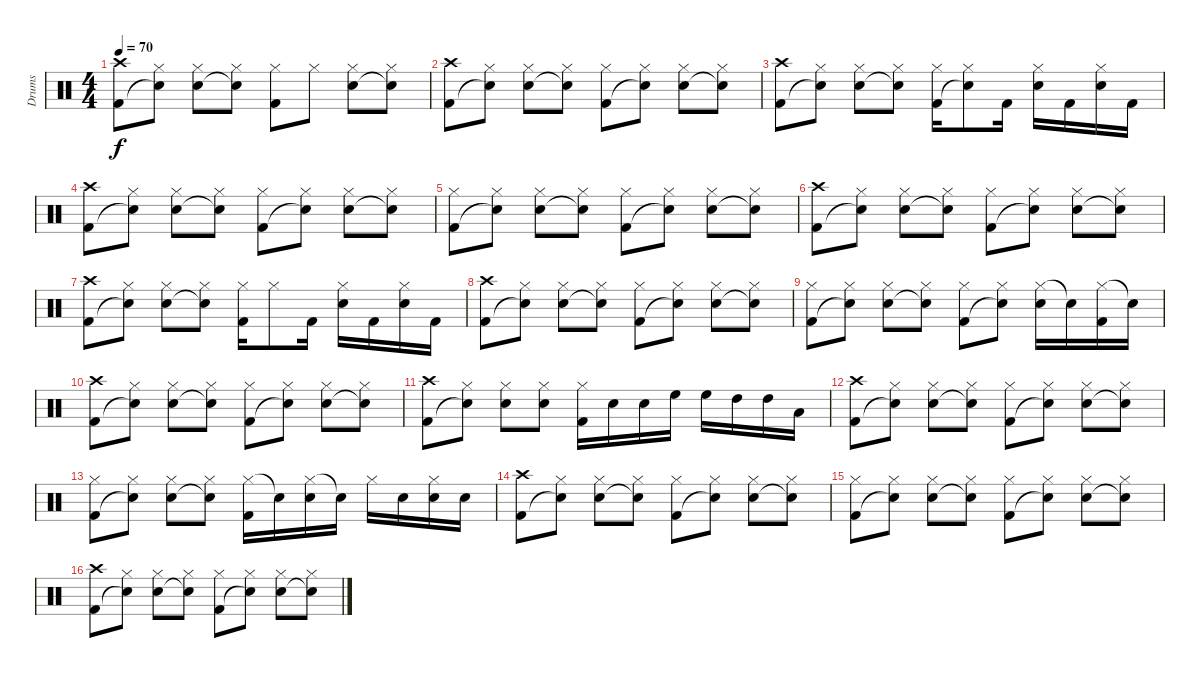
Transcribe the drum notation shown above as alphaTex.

\track ("Drums" "Drums") {instrument percussion}
\staff {score}
\articulation defaults
\ts (4 4)
\tempo 70
\clef neutral
\ks c
("Crash high (hit)" "Kick (hit) 2").8{dy f} ("Hi-Hat (closed)" "Snare (hit)"{t}).8 ("Hi-Hat (closed)" "Electric Snare (hit)").8 ("Hi-Hat (closed)" "Snare (hit)"{t}).8 ("Hi-Hat (closed)" "Kick (hit) 2").8 "Hi-Hat (closed)".8 ("Hi-Hat (closed)" "Electric Snare (hit)").8 ("Hi-Hat (closed)" "Snare (hit)"{t}).8 |
("Crash high (hit)" "Kick (hit) 2").8 ("Hi-Hat (closed)" "Snare (hit)"{t}).8 ("Hi-Hat (closed)" "Electric Snare (hit)").8 ("Hi-Hat (closed)" "Snare (hit)"{t}).8 ("Hi-Hat (closed)" "Kick (hit) 2").8 ("Hi-Hat (closed)" "Snare (hit)"{t}).8 ("Hi-Hat (closed)" "Electric Snare (hit)").8 ("Hi-Hat (closed)" "Snare (hit)"{t}).8 |
("Crash high (hit)" "Kick (hit) 2").8 ("Hi-Hat (closed)" "Snare (hit)"{t}).8 ("Hi-Hat (closed)" "Electric Snare (hit)").8 ("Hi-Hat (closed)" "Snare (hit)"{t}).8 ("Hi-Hat (closed)" "Kick (hit) 2").16 ("Hi-Hat (closed)" "Snare (hit)"{t}).8 "Kick (hit) 2".16 ("Hi-Hat (closed)" "Electric Snare (hit)").16 "Kick (hit) 2".16 ("Hi-Hat (closed)" "Electric Snare (hit)").16 "Kick (hit) 2".16 |
("Crash high (hit)" "Kick (hit) 2").8 ("Hi-Hat (closed)" "Snare (hit)"{t}).8 ("Hi-Hat (closed)" "Electric Snare (hit)").8 ("Hi-Hat (closed)" "Snare (hit)"{t}).8 ("Hi-Hat (closed)" "Kick (hit) 2").8 ("Hi-Hat (closed)" "Snare (hit)"{t}).8 ("Hi-Hat (closed)" "Electric Snare (hit)").8 ("Hi-Hat (closed)" "Snare (hit)"{t}).8 |
("Hi-Hat (closed)" "Kick (hit) 2").8 ("Hi-Hat (closed)" "Snare (hit)"{t}).8 ("Hi-Hat (closed)" "Electric Snare (hit)").8 ("Hi-Hat (closed)" "Snare (hit)"{t}).8 ("Hi-Hat (closed)" "Kick (hit) 2").8 ("Hi-Hat (closed)" "Snare (hit)"{t}).8 ("Hi-Hat (closed)" "Electric Snare (hit)").8 ("Hi-Hat (closed)" "Snare (hit)"{t}).8 |
("Crash high (hit)" "Kick (hit) 2").8 ("Hi-Hat (closed)" "Snare (hit)"{t}).8 ("Hi-Hat (closed)" "Electric Snare (hit)").8 ("Hi-Hat (closed)" "Snare (hit)"{t}).8 ("Hi-Hat (closed)" "Kick (hit) 2").8 ("Hi-Hat (closed)" "Snare (hit)"{t}).8 ("Hi-Hat (closed)" "Electric Snare (hit)").8 ("Hi-Hat (closed)" "Snare (hit)"{t}).8 |
("Crash high (hit)" "Kick (hit) 2").8 ("Hi-Hat (closed)" "Snare (hit)"{t}).8 ("Hi-Hat (closed)" "Electric Snare (hit)").8 ("Hi-Hat (closed)" "Snare (hit)"{t}).8 ("Hi-Hat (closed)" "Kick (hit) 2").16 "Hi-Hat (closed)".8 "Kick (hit) 2".16 ("Hi-Hat (closed)" "Electric Snare (hit)").16 "Kick (hit) 2".16 ("Hi-Hat (closed)" "Electric Snare (hit)").16 "Kick (hit) 2".16 |
("Crash high (hit)" "Kick (hit) 2").8 ("Hi-Hat (closed)" "Snare (hit)"{t}).8 ("Hi-Hat (closed)" "Electric Snare (hit)").8 ("Hi-Hat (closed)" "Snare (hit)"{t}).8 ("Hi-Hat (closed)" "Kick (hit) 2").8 ("Hi-Hat (closed)" "Snare (hit)"{t}).8 ("Hi-Hat (closed)" "Electric Snare (hit)").8 ("Hi-Hat (closed)" "Snare (hit)"{t}).8 |
("Hi-Hat (closed)" "Kick (hit) 2").8 ("Hi-Hat (closed)" "Snare (hit)"{t}).8 ("Hi-Hat (closed)" "Electric Snare (hit)").8 ("Hi-Hat (closed)" "Snare (hit)"{t}).8 ("Hi-Hat (closed)" "Kick (hit) 2").8 ("Hi-Hat (closed)" "Snare (hit)"{t}).8 ("Hi-Hat (closed)" "Electric Snare (hit)").16 "Snare (hit)"{t}.16 ("Hi-Hat (closed)" "Kick (hit) 2").16 "Snare (hit)"{t}.16 |
("Crash high (hit)" "Kick (hit) 2").8 ("Hi-Hat (closed)" "Snare (hit)"{t}).8 ("Hi-Hat (closed)" "Electric Snare (hit)").8 ("Hi-Hat (closed)" "Snare (hit)"{t}).8 ("Hi-Hat (closed)" "Kick (hit) 2").8 ("Hi-Hat (closed)" "Snare (hit)"{t}).8 ("Hi-Hat (closed)" "Electric Snare (hit)").8 ("Hi-Hat (closed)" "Snare (hit)"{t}).8 |
("Crash high (hit)" "Kick (hit) 2").8 ("Hi-Hat (closed)" "Snare (hit)"{t}).8 ("Hi-Hat (closed)" "Electric Snare (hit)").8 ("Hi-Hat (closed)" "Electric Snare (hit)").8 ("Hi-Hat (closed)" "Kick (hit) 2").16 "Electric Snare (hit)".16 "Electric Snare (hit)".16 "High Floor Tom (hit)".16 "High Floor Tom (hit)".16 "High Tom (hit)".16 "High Tom (hit)".16 "Low Floor Tom (hit)".16 |
("Crash high (hit)" "Kick (hit) 2").8 ("Hi-Hat (closed)" "Snare (hit)"{t}).8 ("Hi-Hat (closed)" "Electric Snare (hit)").8 ("Hi-Hat (closed)" "Snare (hit)"{t}).8 ("Hi-Hat (closed)" "Kick (hit) 2").8 ("Hi-Hat (closed)" "Snare (hit)"{t}).8 ("Hi-Hat (closed)" "Electric Snare (hit)").8 ("Hi-Hat (closed)" "Snare (hit)"{t}).8 |
("Hi-Hat (closed)" "Kick (hit) 2").8 ("Hi-Hat (closed)" "Snare (hit)"{t}).8 ("Hi-Hat (closed)" "Electric Snare (hit)").8 ("Hi-Hat (closed)" "Snare (hit)"{t}).8 ("Hi-Hat (closed)" "Kick (hit) 2").16 "Snare (hit)"{t}.16 ("Hi-Hat (closed)" "Electric Snare (hit)").16 "Snare (hit)"{t}.16 "Hi-Hat (closed)".16 "Electric Snare (hit)".16 ("Hi-Hat (closed)" "Electric Snare (hit)").16 "Snare (hit)".16 |
("Crash high (hit)" "Kick (hit) 2").8 ("Hi-Hat (closed)" "Snare (hit)"{t}).8 ("Hi-Hat (closed)" "Electric Snare (hit)").8 ("Hi-Hat (closed)" "Snare (hit)"{t}).8 ("Hi-Hat (closed)" "Kick (hit) 2").8 ("Hi-Hat (closed)" "Snare (hit)"{t}).8 ("Hi-Hat (closed)" "Electric Snare (hit)").8 ("Hi-Hat (closed)" "Snare (hit)"{t}).8 |
("Hi-Hat (closed)" "Kick (hit) 2").8 ("Hi-Hat (closed)" "Snare (hit)"{t}).8 ("Hi-Hat (closed)" "Electric Snare (hit)").8 ("Hi-Hat (closed)" "Snare (hit)"{t}).8 ("Hi-Hat (closed)" "Kick (hit) 2").8 ("Hi-Hat (closed)" "Snare (hit)"{t}).8 ("Hi-Hat (closed)" "Electric Snare (hit)").8 ("Hi-Hat (closed)" "Snare (hit)"{t}).8 |
("Crash high (hit)" "Kick (hit) 2").8 ("Hi-Hat (closed)" "Snare (hit)"{t}).8 ("Hi-Hat (closed)" "Electric Snare (hit)").8 ("Hi-Hat (closed)" "Snare (hit)"{t}).8 ("Hi-Hat (closed)" "Kick (hit) 2").8 ("Hi-Hat (closed)" "Snare (hit)"{t}).8 ("Hi-Hat (closed)" "Electric Snare (hit)").8 ("Hi-Hat (closed)" "Snare (hit)"{t}).8
